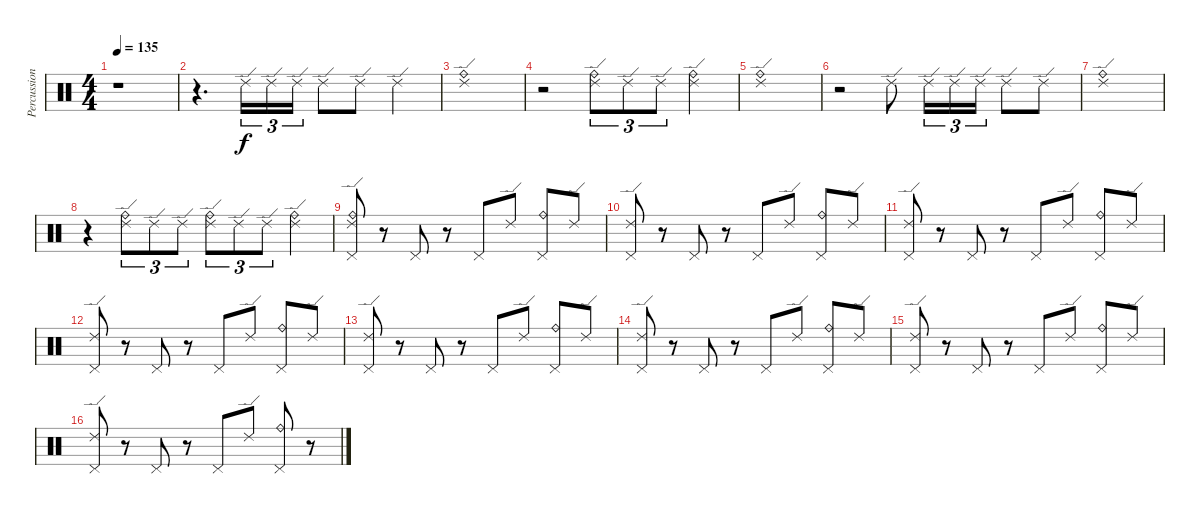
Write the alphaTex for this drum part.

\track ("Percussion" "Percussion") {instrument percussion}
\staff {score}
\articulation defaults
\ts (4 4)
\tempo 135
\tempo 138
\tempo 135
\clef neutral
\ks c
r.1{dy f} |
r.4{d} "Ride (edge) 2".16{tu (3 2)} "Ride (edge) 2".16{tu (3 2)} "Ride (edge) 2".16{tu (3 2)} "Ride (edge) 2".8 "Ride (edge) 2".8 "Ride (edge) 2".4 |
("Ride (edge) 2" "Ride (bell)").1{bd 240} |
r.2 ("Ride (edge) 2" "Ride (bell)").8{tu (3 2)} "Ride (edge) 2".8{tu (3 2)} "Ride (edge) 2".8{tu (3 2)} ("Ride (edge) 2" "Ride (bell)").4 |
("Ride (edge) 2" "Ride (bell)").1{bd 240} |
r.2 "Ride (edge) 2".8 "Ride (edge) 2".16{tu (3 2)} "Ride (edge) 2".16{tu (3 2)} "Ride (edge) 2".16{tu (3 2)} "Ride (edge) 2".8 "Ride (edge) 2".8 |
("Ride (edge) 2" "Ride (bell)").1{bd 240} |
r.4 ("Ride (edge) 2" "Ride (bell)").8{tu (3 2)} "Ride (edge) 2".8{tu (3 2)} "Ride (edge) 2".8{tu (3 2)} ("Ride (edge) 2" "Ride (bell)").8{tu (3 2)} "Ride (edge) 2".8{tu (3 2)} "Ride (edge) 2".8{tu (3 2)} ("Ride (edge) 2" "Ride (bell)").4 |
("Pedal Hi-Hat (hit)" "Ride (edge) 2" "Ride (bell)").8 r.8 "Pedal Hi-Hat (hit)".8 r.8 "Pedal Hi-Hat (hit)".8 "Ride (edge) 2".8 ("Pedal Hi-Hat (hit)" "Ride (bell)").8 "Ride (edge) 2".8 |
("Pedal Hi-Hat (hit)" "Ride (edge) 2").8 r.8 "Pedal Hi-Hat (hit)".8 r.8 "Pedal Hi-Hat (hit)".8 "Ride (edge) 2".8 ("Pedal Hi-Hat (hit)" "Ride (bell)").8 "Ride (edge) 2".8 |
("Pedal Hi-Hat (hit)" "Ride (edge) 2").8 r.8 "Pedal Hi-Hat (hit)".8 r.8 "Pedal Hi-Hat (hit)".8 "Ride (edge) 2".8 ("Pedal Hi-Hat (hit)" "Ride (bell)").8 "Ride (edge) 2".8 |
("Pedal Hi-Hat (hit)" "Ride (edge) 2").8 r.8 "Pedal Hi-Hat (hit)".8 r.8 "Pedal Hi-Hat (hit)".8 "Ride (edge) 2".8 ("Pedal Hi-Hat (hit)" "Ride (bell)").8 "Ride (edge) 2".8 |
("Pedal Hi-Hat (hit)" "Ride (edge) 2").8 r.8 "Pedal Hi-Hat (hit)".8 r.8 "Pedal Hi-Hat (hit)".8 "Ride (edge) 2".8 ("Pedal Hi-Hat (hit)" "Ride (bell)").8 "Ride (edge) 2".8 |
("Pedal Hi-Hat (hit)" "Ride (edge) 2").8 r.8 "Pedal Hi-Hat (hit)".8 r.8 "Pedal Hi-Hat (hit)".8 "Ride (edge) 2".8 ("Pedal Hi-Hat (hit)" "Ride (bell)").8 "Ride (edge) 2".8 |
("Pedal Hi-Hat (hit)" "Ride (edge) 2").8 r.8 "Pedal Hi-Hat (hit)".8 r.8 "Pedal Hi-Hat (hit)".8 "Ride (edge) 2".8 ("Pedal Hi-Hat (hit)" "Ride (bell)").8 "Ride (edge) 2".8 |
("Pedal Hi-Hat (hit)" "Ride (edge) 2").8 r.8 "Pedal Hi-Hat (hit)".8 r.8 "Pedal Hi-Hat (hit)".8 "Ride (edge) 2".8 ("Pedal Hi-Hat (hit)" "Ride (bell)").8 r.8
